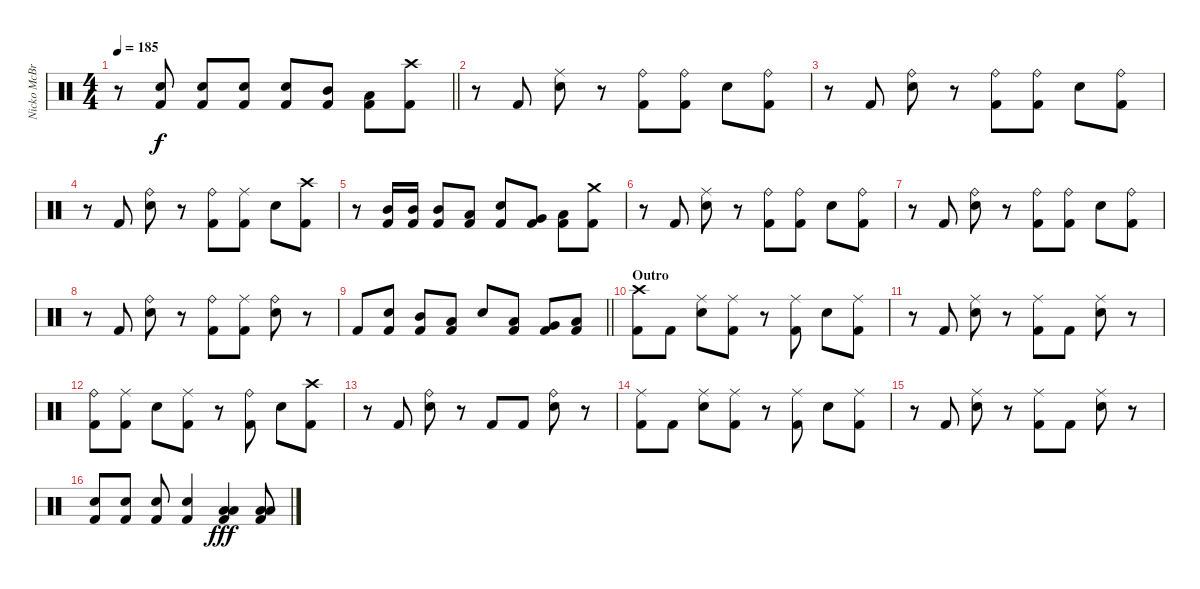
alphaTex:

\track ("Nicko McBrain" "Nicko McBr") {instrument percussion}
\staff {score}
\articulation defaults
\ts (4 4)
\tempo 185
\clef neutral
\barLineRight lightlight
\ks c
r.8{dy f} ("Snare (hit) 2" "Kick (hit) 2").8 ("Snare (hit) 2" "Kick (hit) 2").8 ("Snare (hit) 2" "Kick (hit) 2").8 ("Snare (hit) 2" "Kick (hit) 2").8 ("Mid Tom (hit)" "Kick (hit) 2").8 ("Low Tom (hit)" "Kick (hit) 2").8 ("Crash high (hit)" "Kick (hit) 2").8 |
r.8 "Kick (hit) 2".8 ("Ride (middle)" "Snare (hit) 2").8 r.8 ("Ride (bell)" "Kick (hit) 2").8 ("Ride (bell)" "Kick (hit) 2").8 "Snare (hit) 2".8 ("Ride (bell)" "Kick (hit) 2").8 |
r.8 "Kick (hit) 2".8 ("Ride (bell)" "Snare (hit) 2").8 r.8 ("Ride (bell)" "Kick (hit) 2").8 ("Ride (bell)" "Kick (hit) 2").8 "Snare (hit) 2".8 ("Ride (bell)" "Kick (hit) 2").8 |
r.8 "Kick (hit) 2".8 ("Ride (bell)" "Snare (hit) 2").8 r.8 ("Ride (bell)" "Kick (hit) 2").8 ("Ride (middle)" "Kick (hit) 2").8 "Snare (hit) 2".8 ("Crash high (hit)" "Kick (hit) 2").8 |
r.8 ("Mid Tom (hit)" "Kick (hit) 2").16 ("Mid Tom (hit)" "Kick (hit) 2").16 ("Mid Tom (hit)" "Kick (hit) 2").8 ("Low Tom (hit)" "Kick (hit) 2").8 ("Snare (hit) 2" "Kick (hit) 2").8 ("Very Low Tom (hit)" "Kick (hit) 2").8 ("Low Floor Tom (hit)" "Kick (hit) 2").8 ("Crash medium (hit)" "Kick (hit) 2").8 |
r.8 "Kick (hit) 2".8 ("Ride (middle)" "Snare (hit) 2").8 r.8 ("Ride (bell)" "Kick (hit) 2").8 ("Ride (bell)" "Kick (hit) 2").8 "Snare (hit) 2".8 ("Ride (bell)" "Kick (hit) 2").8 |
r.8 "Kick (hit) 2".8 ("Ride (bell)" "Snare (hit) 2").8 r.8 ("Ride (bell)" "Kick (hit) 2").8 ("Ride (bell)" "Kick (hit) 2").8 "Snare (hit) 2".8 ("Ride (bell)" "Kick (hit) 2").8 |
r.8 "Kick (hit) 2".8 ("Ride (bell)" "Snare (hit) 2").8 r.8 ("Ride (bell)" "Kick (hit) 2").8 ("Ride (middle)" "Kick (hit) 2").8 ("Ride (bell)" "Snare (hit) 2").8 r.8 |
\barLineRight lightlight "Kick (hit) 2".8
("Snare (hit) 2" "Kick (hit) 2").8 ("Mid Tom (hit)" "Kick (hit) 2").8 ("Low Tom (hit)" "Kick (hit) 2").8 "Snare (hit) 2".8 ("Low Tom (hit)" "Kick (hit) 2").8 ("Very Low Tom (hit)" "Kick (hit) 2").8 ("Low Floor Tom (hit)" "Kick (hit) 2").8 |
\section ("" "Outro")
("Crash high (hit)" "Kick (hit) 2").8 "Kick (hit) 2".8 ("Ride (middle)" "Snare (hit) 2").8 ("Ride (middle)" "Kick (hit) 2").8 r.8 ("Ride (middle)" "Kick (hit) 2").8 "Snare (hit) 2".8 ("Ride (middle)" "Kick (hit) 2").8 |
r.8 "Kick (hit) 2".8 ("Ride (middle)" "Snare (hit) 2").8 r.8 ("Ride (middle)" "Kick (hit) 2").8 "Kick (hit) 2".8 ("Ride (middle)" "Snare (hit) 2").8 r.8 |
("Ride (bell)" "Kick (hit) 2").8 ("Ride (middle)" "Kick (hit) 2").8 "Snare (hit) 2".8 ("Ride (middle)" "Kick (hit) 2").8 r.8 ("Ride (bell)" "Kick (hit) 2").8 "Snare (hit) 2".8 ("Crash high (hit)" "Kick (hit) 2").8 |
r.8 "Kick (hit) 2".8 ("Ride (bell)" "Snare (hit) 2").8 r.8 "Kick (hit) 2".8 "Kick (hit) 2".8 ("Ride (bell)" "Snare (hit) 2").8 r.8 |
("Ride (middle)" "Kick (hit) 2").8 "Kick (hit) 2".8 ("Ride (middle)" "Snare (hit) 2").8 ("Ride (middle)" "Kick (hit) 2").8 r.8 ("Ride (middle)" "Kick (hit) 2").8 "Snare (hit) 2".8 ("Ride (middle)" "Kick (hit) 2").8 |
r.8 "Kick (hit) 2".8 ("Ride (middle)" "Snare (hit) 2").8 r.8 ("Ride (middle)" "Kick (hit) 2").8 "Kick (hit) 2".8 ("Ride (middle)" "Snare (hit) 2").8 r.8 |
("Snare (hit) 2" "Kick (hit) 2").8 ("Snare (hit) 2" "Kick (hit) 2").8 ("Snare (hit) 2" "Kick (hit) 2").8 ("Snare (hit) 2" "Kick (hit) 2").4 ("Low Tom (hit)" "Low Floor Tom (hit)" "Kick (hit) 2").4{dy fff} ("Low Tom (hit)" "Low Floor Tom (hit)" "Kick (hit) 2").8
